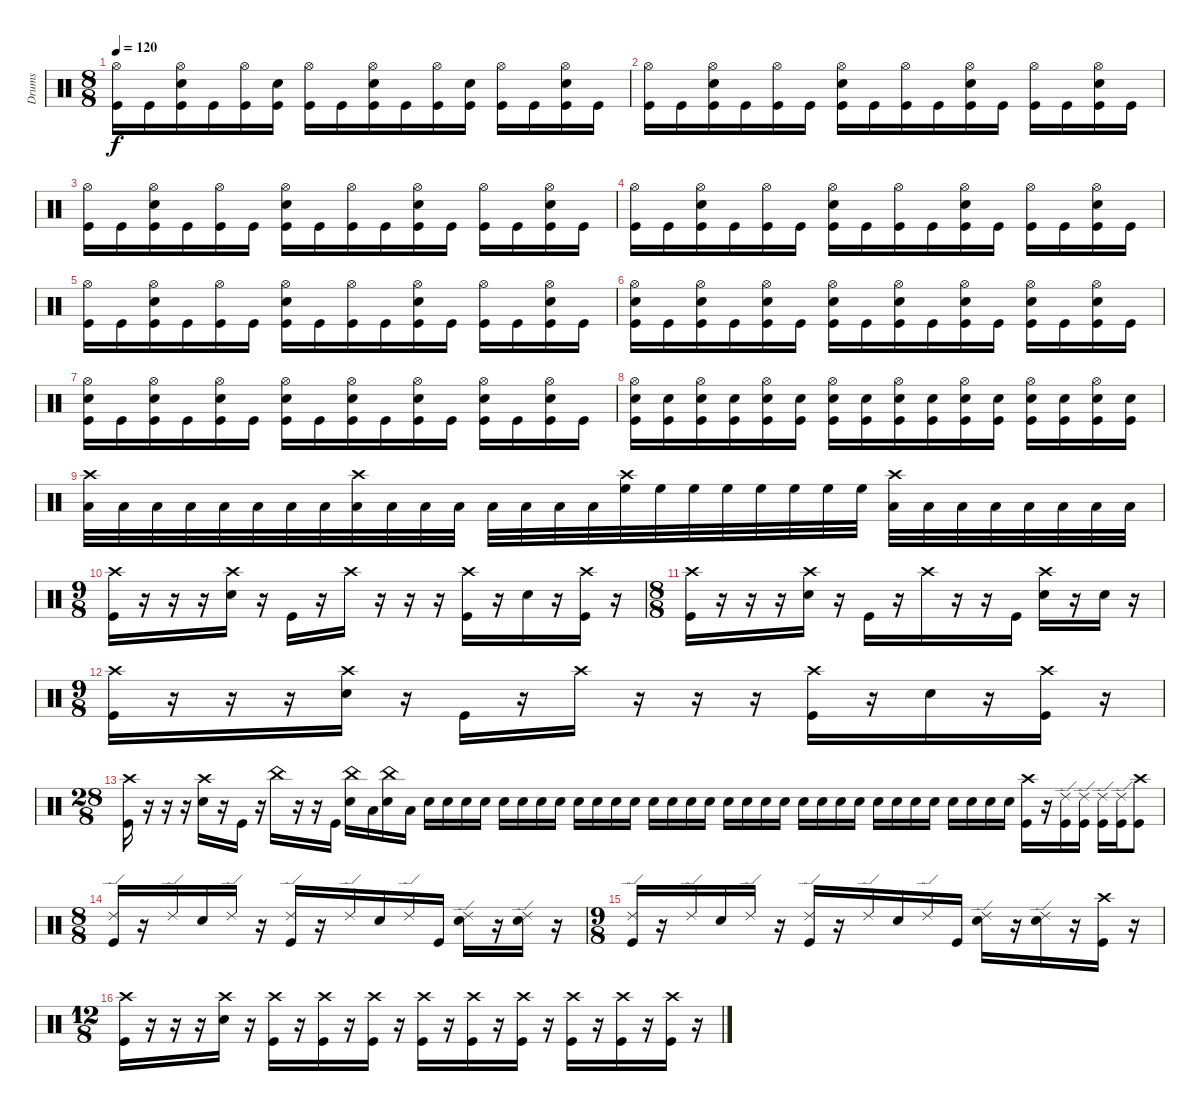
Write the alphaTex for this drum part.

\track ("Drums" "Drums") {instrument percussion}
\staff {score}
\articulation defaults
\ts (8 8)
\tempo 120
\clef neutral
\ks c
("Hi-Hat (open)" "Kick (hit)").16{dy f} "Kick (hit)".16 ("Hi-Hat (open)" "Electric Snare (hit)" "Kick (hit)").16 "Kick (hit)".16 ("Hi-Hat (open)" "Kick (hit)").16 ("Electric Snare (hit)" "Kick (hit)").16 ("Hi-Hat (open)" "Kick (hit)").16 "Kick (hit)".16 ("Hi-Hat (open)" "Electric Snare (hit)" "Kick (hit)").16 "Kick (hit)".16 ("Hi-Hat (open)" "Kick (hit)").16 ("Electric Snare (hit)" "Kick (hit)").16 ("Hi-Hat (open)" "Kick (hit)").16 "Kick (hit)".16 ("Hi-Hat (open)" "Electric Snare (hit)" "Kick (hit)").16 "Kick (hit)".16 |
("Hi-Hat (open)" "Kick (hit)").16 "Kick (hit)".16 ("Hi-Hat (open)" "Electric Snare (hit)" "Kick (hit)").16 "Kick (hit)".16 ("Hi-Hat (open)" "Kick (hit)").16 "Kick (hit)".16 ("Hi-Hat (open)" "Electric Snare (hit)" "Kick (hit)").16 "Kick (hit)".16 ("Hi-Hat (open)" "Kick (hit)").16 "Kick (hit)".16 ("Hi-Hat (open)" "Electric Snare (hit)" "Kick (hit)").16 "Kick (hit)".16 ("Hi-Hat (open)" "Kick (hit)").16 "Kick (hit)".16 ("Hi-Hat (open)" "Electric Snare (hit)" "Kick (hit)").16 "Kick (hit)".16 |
("Hi-Hat (open)" "Kick (hit)").16 "Kick (hit)".16 ("Hi-Hat (open)" "Electric Snare (hit)" "Kick (hit)").16 "Kick (hit)".16 ("Hi-Hat (open)" "Kick (hit)").16 "Kick (hit)".16 ("Hi-Hat (open)" "Electric Snare (hit)" "Kick (hit)").16 "Kick (hit)".16 ("Hi-Hat (open)" "Kick (hit)").16 "Kick (hit)".16 ("Hi-Hat (open)" "Electric Snare (hit)" "Kick (hit)").16 "Kick (hit)".16 ("Hi-Hat (open)" "Kick (hit)").16 "Kick (hit)".16 ("Hi-Hat (open)" "Electric Snare (hit)" "Kick (hit)").16 "Kick (hit)".16 |
("Hi-Hat (open)" "Kick (hit)").16 "Kick (hit)".16 ("Hi-Hat (open)" "Electric Snare (hit)" "Kick (hit)").16 "Kick (hit)".16 ("Hi-Hat (open)" "Kick (hit)").16 "Kick (hit)".16 ("Hi-Hat (open)" "Electric Snare (hit)" "Kick (hit)").16 "Kick (hit)".16 ("Hi-Hat (open)" "Kick (hit)").16 "Kick (hit)".16 ("Hi-Hat (open)" "Electric Snare (hit)" "Kick (hit)").16 "Kick (hit)".16 ("Hi-Hat (open)" "Kick (hit)").16 "Kick (hit)".16 ("Hi-Hat (open)" "Electric Snare (hit)" "Kick (hit)").16 "Kick (hit)".16 |
("Hi-Hat (open)" "Kick (hit)").16 "Kick (hit)".16 ("Hi-Hat (open)" "Electric Snare (hit)" "Kick (hit)").16 "Kick (hit)".16 ("Hi-Hat (open)" "Kick (hit)").16 "Kick (hit)".16 ("Hi-Hat (open)" "Electric Snare (hit)" "Kick (hit)").16 "Kick (hit)".16 ("Hi-Hat (open)" "Kick (hit)").16 "Kick (hit)".16 ("Hi-Hat (open)" "Electric Snare (hit)" "Kick (hit)").16 "Kick (hit)".16 ("Hi-Hat (open)" "Kick (hit)").16 "Kick (hit)".16 ("Hi-Hat (open)" "Electric Snare (hit)" "Kick (hit)").16 "Kick (hit)".16 |
("Hi-Hat (open)" "Electric Snare (hit)" "Kick (hit)").16 "Kick (hit)".16 ("Hi-Hat (open)" "Electric Snare (hit)" "Kick (hit)").16 "Kick (hit)".16 ("Hi-Hat (open)" "Electric Snare (hit)" "Kick (hit)").16 "Kick (hit)".16 ("Hi-Hat (open)" "Electric Snare (hit)" "Kick (hit)").16 "Kick (hit)".16 ("Hi-Hat (open)" "Electric Snare (hit)" "Kick (hit)").16 "Kick (hit)".16 ("Hi-Hat (open)" "Electric Snare (hit)" "Kick (hit)").16 "Kick (hit)".16 ("Hi-Hat (open)" "Electric Snare (hit)" "Kick (hit)").16 "Kick (hit)".16 ("Hi-Hat (open)" "Electric Snare (hit)" "Kick (hit)").16 "Kick (hit)".16 |
("Hi-Hat (open)" "Electric Snare (hit)" "Kick (hit)").16 "Kick (hit)".16 ("Hi-Hat (open)" "Electric Snare (hit)" "Kick (hit)").16 "Kick (hit)".16 ("Hi-Hat (open)" "Electric Snare (hit)" "Kick (hit)").16 "Kick (hit)".16 ("Hi-Hat (open)" "Electric Snare (hit)" "Kick (hit)").16 "Kick (hit)".16 ("Hi-Hat (open)" "Electric Snare (hit)" "Kick (hit)").16 "Kick (hit)".16 ("Hi-Hat (open)" "Electric Snare (hit)" "Kick (hit)").16 "Kick (hit)".16 ("Hi-Hat (open)" "Electric Snare (hit)" "Kick (hit)").16 "Kick (hit)".16 ("Hi-Hat (open)" "Electric Snare (hit)" "Kick (hit)").16 "Kick (hit)".16 |
("Hi-Hat (open)" "Electric Snare (hit)" "Kick (hit)").16 ("Electric Snare (hit)" "Kick (hit)").16 ("Hi-Hat (open)" "Electric Snare (hit)" "Kick (hit)").16 ("Electric Snare (hit)" "Kick (hit)").16 ("Hi-Hat (open)" "Electric Snare (hit)" "Kick (hit)").16 ("Electric Snare (hit)" "Kick (hit)").16 ("Hi-Hat (open)" "Electric Snare (hit)" "Kick (hit)").16 ("Electric Snare (hit)" "Kick (hit)").16 ("Hi-Hat (open)" "Electric Snare (hit)" "Kick (hit)").16 ("Electric Snare (hit)" "Kick (hit)").16 ("Hi-Hat (open)" "Electric Snare (hit)" "Kick (hit)").16 ("Electric Snare (hit)" "Kick (hit)").16 ("Hi-Hat (open)" "Electric Snare (hit)" "Kick (hit)").16 ("Electric Snare (hit)" "Kick (hit)").16 ("Hi-Hat (open)" "Electric Snare (hit)" "Kick (hit)").16 ("Electric Snare (hit)" "Kick (hit)").16 |
("Crash high (hit)" "Low Floor Tom (hit)").32 "Low Floor Tom (hit)".32 "Low Floor Tom (hit)".32 "Low Floor Tom (hit)".32 "Low Floor Tom (hit)".32 "Low Floor Tom (hit)".32 "Low Floor Tom (hit)".32 "Low Floor Tom (hit)".32 ("Crash high (hit)" "Low Tom (hit)").32 "Low Tom (hit)".32 "Low Tom (hit)".32 "Low Tom (hit)".32 "Low Tom (hit)".32 "Low Tom (hit)".32 "Low Tom (hit)".32 "Low Tom (hit)".32 ("Crash high (hit)" "High Floor Tom (hit)").32 "High Floor Tom (hit)".32 "High Floor Tom (hit)".32 "High Floor Tom (hit)".32 "High Floor Tom (hit)".32 "High Floor Tom (hit)".32 "High Floor Tom (hit)".32 "High Floor Tom (hit)".32 ("Crash high (hit)" "Low Floor Tom (hit)").32 "Low Floor Tom (hit)".32 "Low Floor Tom (hit)".32 "Low Floor Tom (hit)".32 "Low Floor Tom (hit)".32 "Low Floor Tom (hit)".32 "Low Floor Tom (hit)".32 "Low Floor Tom (hit)".32 |
\ts (9 8)
("Crash high (hit)" "Kick (hit)").16 r.16 r.16 r.16 ("Crash high (hit)" "Electric Snare (hit)").16 r.16 "Kick (hit)".16 r.16 "Crash high (hit)".16 r.16 r.16 r.16 ("Crash high (hit)" "Kick (hit)").16 r.16 "Electric Snare (hit)".16 r.16 ("Crash high (hit)" "Kick (hit)").16 r.16 |
\ts (8 8)
("Crash high (hit)" "Kick (hit)").16 r.16 r.16 r.16 ("Crash high (hit)" "Electric Snare (hit)").16 r.16 "Kick (hit)".16 r.16 "Crash high (hit)".16 r.16 r.16 "Kick (hit)".16 ("Crash high (hit)" "Electric Snare (hit)").16 r.16 "Electric Snare (hit)".16 r.16 |
\ts (9 8)
("Crash high (hit)" "Kick (hit)").16 r.16 r.16 r.16 ("Crash high (hit)" "Electric Snare (hit)").16 r.16 "Kick (hit)".16 r.16 "Crash high (hit)".16 r.16 r.16 r.16 ("Crash high (hit)" "Kick (hit)").16 r.16 "Electric Snare (hit)".16 r.16 ("Crash high (hit)" "Kick (hit)").16 r.16 |
\ts (28 8)
("Crash high (hit)" "Kick (hit)").16 r.16 r.16 r.16 ("Crash high (hit)" "Electric Snare (hit)").16 r.16 "Kick (hit)".16 r.16 "China (hit)".16 r.16 r.16 "Kick (hit)".16 ("China (hit)" "Electric Snare (hit)").16 "Low Floor Tom (hit)".16 ("China (hit)" "Electric Snare (hit)").16 "Low Floor Tom (hit)".16 "Electric Snare (hit)".16{volume 4} "Electric Snare (hit)".16{volume 14} "Electric Snare (hit)".16 "Electric Snare (hit)".16 "Electric Snare (hit)".16 "Electric Snare (hit)".16 "Electric Snare (hit)".16 "Electric Snare (hit)".16 "Electric Snare (hit)".16 "Electric Snare (hit)".16 "Electric Snare (hit)".16 "Electric Snare (hit)".16 "Electric Snare (hit)".16 "Electric Snare (hit)".16 "Electric Snare (hit)".16 "Electric Snare (hit)".16 "Electric Snare (hit)".16 "Electric Snare (hit)".16 "Electric Snare (hit)".16 "Electric Snare (hit)".16 "Electric Snare (hit)".16 "Electric Snare (hit)".16 "Electric Snare (hit)".16 "Electric Snare (hit)".16 "Electric Snare (hit)".16 "Electric Snare (hit)".16 "Electric Snare (hit)".16 "Electric Snare (hit)".16 "Electric Snare (hit)".16 "Electric Snare (hit)".16 "Electric Snare (hit)".16 "Electric Snare (hit)".16 ("Crash high (hit)" "Kick (hit)").16 r.16 ("Ride (edge) 2" "Kick (hit)").16 ("Ride (edge) 2" "Kick (hit)").16 ("Ride (edge) 2" "Kick (hit)").16 ("Ride (edge) 2" "Kick (hit)").16 ("Crash high (hit)" "Kick (hit)").8 |
\ts (8 8)
("Ride (edge) 2" "Kick (hit)").16 r.16 "Ride (edge) 2".16 "Electric Snare (hit)".16 "Ride (edge) 2".16 r.16 ("Ride (edge) 2" "Kick (hit)").16 r.16 "Ride (edge) 2".16 "Electric Snare (hit)".16 "Ride (edge) 2".16 "Kick (hit)".16 ("Ride (edge) 2" "Electric Snare (hit)").16 r.16 ("Ride (edge) 2" "Electric Snare (hit)").16 r.16 |
\ts (9 8)
("Ride (edge) 2" "Kick (hit)").16 r.16 "Ride (edge) 2".16 "Electric Snare (hit)".16 "Ride (edge) 2".16 r.16 ("Ride (edge) 2" "Kick (hit)").16 r.16 "Ride (edge) 2".16 "Electric Snare (hit)".16 "Ride (edge) 2".16 "Kick (hit)".16 ("Ride (edge) 2" "Electric Snare (hit)").16 r.16 ("Ride (edge) 2" "Electric Snare (hit)").16 r.16 ("Crash high (hit)" "Kick (hit)").16 r.16 |
\ts (12 8)
("Crash high (hit)" "Kick (hit)").16 r.16 r.16 r.16 ("Crash high (hit)" "Electric Snare (hit)").16 r.16 ("Crash high (hit)" "Kick (hit)").16 r.16 ("Crash high (hit)" "Kick (hit)").16 r.16 ("Crash high (hit)" "Kick (hit)").16 r.16 ("Crash high (hit)" "Kick (hit)").16 r.16 ("Crash high (hit)" "Kick (hit)").16 r.16 ("Crash high (hit)" "Kick (hit)").16 r.16 ("Crash high (hit)" "Kick (hit)").16 r.16 ("Crash high (hit)" "Kick (hit)").16 r.16 ("Crash high (hit)" "Kick (hit)").16 r.16
